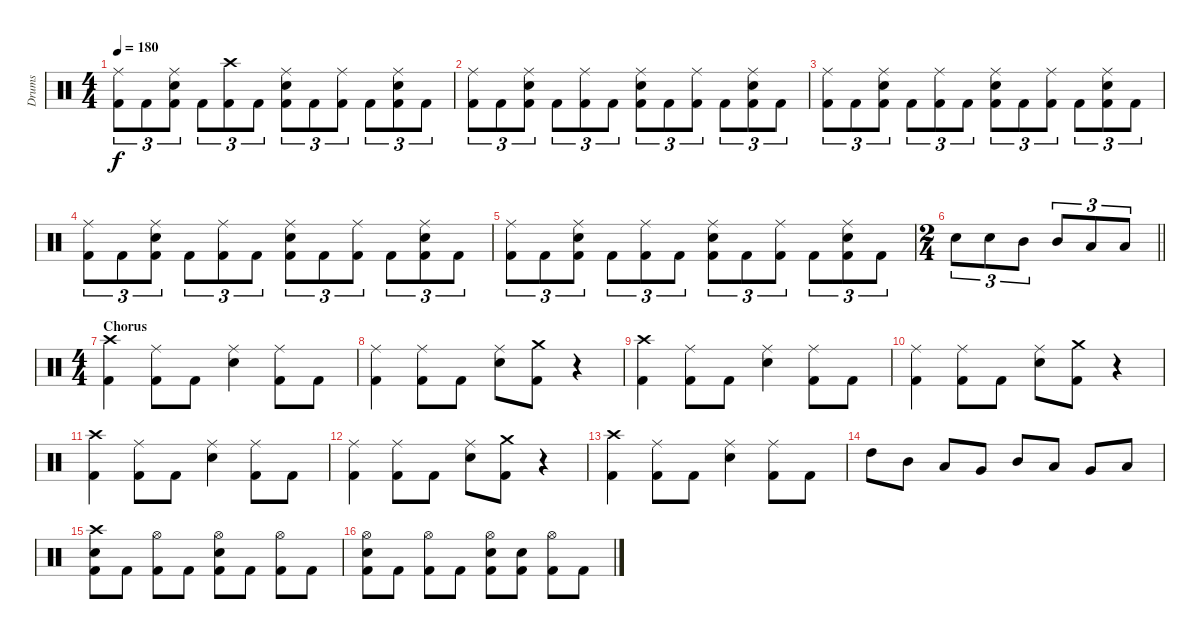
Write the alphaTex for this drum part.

\track ("Drums" "Drums") {instrument percussion}
\staff {score}
\articulation defaults
\ts (4 4)
\tempo 180
\clef neutral
\ks c
("Ride (middle)" "Kick (hit) 2").8{tu (3 2) dy f} "Kick (hit) 2".8{tu (3 2)} ("Ride (middle)" "Electric Snare (hit)" "Kick (hit) 2").8{tu (3 2)} "Kick (hit) 2".8{tu (3 2)} ("Crash high (hit)" "Kick (hit) 2").8{tu (3 2)} "Kick (hit) 2".8{tu (3 2)} ("Ride (middle)" "Electric Snare (hit)" "Kick (hit) 2").8{tu (3 2)} "Kick (hit) 2".8{tu (3 2)} ("Ride (middle)" "Kick (hit) 2").8{tu (3 2)} "Kick (hit) 2".8{tu (3 2)} ("Ride (middle)" "Electric Snare (hit)" "Kick (hit) 2").8{tu (3 2)} "Kick (hit) 2".8{tu (3 2)} |
("Ride (middle)" "Kick (hit) 2").8{tu (3 2)} "Kick (hit) 2".8{tu (3 2)} ("Ride (middle)" "Electric Snare (hit)" "Kick (hit) 2").8{tu (3 2)} "Kick (hit) 2".8{tu (3 2)} ("Ride (middle)" "Kick (hit) 2").8{tu (3 2)} "Kick (hit) 2".8{tu (3 2)} ("Ride (middle)" "Electric Snare (hit)" "Kick (hit) 2").8{tu (3 2)} "Kick (hit) 2".8{tu (3 2)} ("Ride (middle)" "Kick (hit) 2").8{tu (3 2)} "Kick (hit) 2".8{tu (3 2)} ("Ride (middle)" "Electric Snare (hit)" "Kick (hit) 2").8{tu (3 2)} "Kick (hit) 2".8{tu (3 2)} |
("Ride (middle)" "Kick (hit) 2").8{tu (3 2)} "Kick (hit) 2".8{tu (3 2)} ("Ride (middle)" "Electric Snare (hit)" "Kick (hit) 2").8{tu (3 2)} "Kick (hit) 2".8{tu (3 2)} ("Ride (middle)" "Kick (hit) 2").8{tu (3 2)} "Kick (hit) 2".8{tu (3 2)} ("Ride (middle)" "Electric Snare (hit)" "Kick (hit) 2").8{tu (3 2)} "Kick (hit) 2".8{tu (3 2)} ("Ride (middle)" "Kick (hit) 2").8{tu (3 2)} "Kick (hit) 2".8{tu (3 2)} ("Ride (middle)" "Electric Snare (hit)" "Kick (hit) 2").8{tu (3 2)} "Kick (hit) 2".8{tu (3 2)} |
("Ride (middle)" "Kick (hit) 2").8{tu (3 2)} "Kick (hit) 2".8{tu (3 2)} ("Ride (middle)" "Electric Snare (hit)" "Kick (hit) 2").8{tu (3 2)} "Kick (hit) 2".8{tu (3 2)} ("Ride (middle)" "Kick (hit) 2").8{tu (3 2)} "Kick (hit) 2".8{tu (3 2)} ("Ride (middle)" "Electric Snare (hit)" "Kick (hit) 2").8{tu (3 2)} "Kick (hit) 2".8{tu (3 2)} ("Ride (middle)" "Kick (hit) 2").8{tu (3 2)} "Kick (hit) 2".8{tu (3 2)} ("Ride (middle)" "Electric Snare (hit)" "Kick (hit) 2").8{tu (3 2)} "Kick (hit) 2".8{tu (3 2)} |
("Ride (middle)" "Kick (hit) 2").8{tu (3 2)} "Kick (hit) 2".8{tu (3 2)} ("Ride (middle)" "Electric Snare (hit)" "Kick (hit) 2").8{tu (3 2)} "Kick (hit) 2".8{tu (3 2)} ("Ride (middle)" "Kick (hit) 2").8{tu (3 2)} "Kick (hit) 2".8{tu (3 2)} ("Ride (middle)" "Electric Snare (hit)" "Kick (hit) 2").8{tu (3 2)} "Kick (hit) 2".8{tu (3 2)} ("Ride (middle)" "Kick (hit) 2").8{tu (3 2)} "Kick (hit) 2".8{tu (3 2)} ("Ride (middle)" "Electric Snare (hit)" "Kick (hit) 2").8{tu (3 2)} "Kick (hit) 2".8{tu (3 2)} |
\ts (2 4)
\barLineRight lightlight "Electric Snare (hit)".8{tu (3 2)} "Electric Snare (hit)".8{tu (3 2)} "Mid Tom (hit)".8{tu (3 2)} "Mid Tom (hit)".8{tu (3 2)} "Low Tom (hit)".8{tu (3 2)} "Low Tom (hit)".8{tu (3 2)}
|
\ts (4 4)
\section ("" "Chorus")
("Crash high (hit)" "Kick (hit) 2").4 ("Ride (middle)" "Kick (hit) 2").8 "Kick (hit) 2".8 ("Ride (middle)" "Electric Snare (hit)").4 ("Ride (middle)" "Kick (hit) 2").8 "Kick (hit) 2".8 |
("Ride (middle)" "Kick (hit) 2").4 ("Ride (middle)" "Kick (hit) 2").8 "Kick (hit) 2".8 ("Ride (middle)" "Electric Snare (hit)").8 ("Crash medium (hit)" "Kick (hit) 2").8 r.4 |
("Crash high (hit)" "Kick (hit) 2").4 ("Ride (middle)" "Kick (hit) 2").8 "Kick (hit) 2".8 ("Ride (middle)" "Electric Snare (hit)").4 ("Ride (middle)" "Kick (hit) 2").8 "Kick (hit) 2".8 |
("Ride (middle)" "Kick (hit) 2").4 ("Ride (middle)" "Kick (hit) 2").8 "Kick (hit) 2".8 ("Ride (middle)" "Electric Snare (hit)").8 ("Crash medium (hit)" "Kick (hit) 2").8 r.4 |
("Crash high (hit)" "Kick (hit) 2").4 ("Ride (middle)" "Kick (hit) 2").8 "Kick (hit) 2".8 ("Ride (middle)" "Electric Snare (hit)").4 ("Ride (middle)" "Kick (hit) 2").8 "Kick (hit) 2".8 |
("Ride (middle)" "Kick (hit) 2").4 ("Ride (middle)" "Kick (hit) 2").8 "Kick (hit) 2".8 ("Ride (middle)" "Electric Snare (hit)").8 ("Crash medium (hit)" "Kick (hit) 2").8 r.4 |
("Crash high (hit)" "Kick (hit) 2").4 ("Ride (middle)" "Kick (hit) 2").8 "Kick (hit) 2".8 ("Ride (middle)" "Electric Snare (hit)").4 ("Ride (middle)" "Kick (hit) 2").8 "Kick (hit) 2".8 |
"High Tom (hit)".8 "Mid Tom (hit)".8 "Low Tom (hit)".8 "Very Low Tom (hit)".8 "Mid Tom (hit)".8 "Low Tom (hit)".8 "Very Low Tom (hit)".8 "Low Floor Tom (hit)".8 |
("Crash high (hit)" "Electric Snare (hit)" "Kick (hit) 2").8 "Kick (hit) 2".8 ("Hi-Hat (open)" "Kick (hit) 2").8 "Kick (hit) 2".8 ("Hi-Hat (open)" "Electric Snare (hit)" "Kick (hit) 2").8 "Kick (hit) 2".8 ("Hi-Hat (open)" "Kick (hit) 2").8 "Kick (hit) 2".8 |
("Hi-Hat (open)" "Electric Snare (hit)" "Kick (hit) 2").8 "Kick (hit) 2".8 ("Hi-Hat (open)" "Kick (hit) 2").8 "Kick (hit) 2".8 ("Hi-Hat (open)" "Electric Snare (hit)" "Kick (hit) 2").8 ("Electric Snare (hit)" "Kick (hit) 2").8 ("Hi-Hat (open)" "Kick (hit) 2").8 "Kick (hit) 2".8
